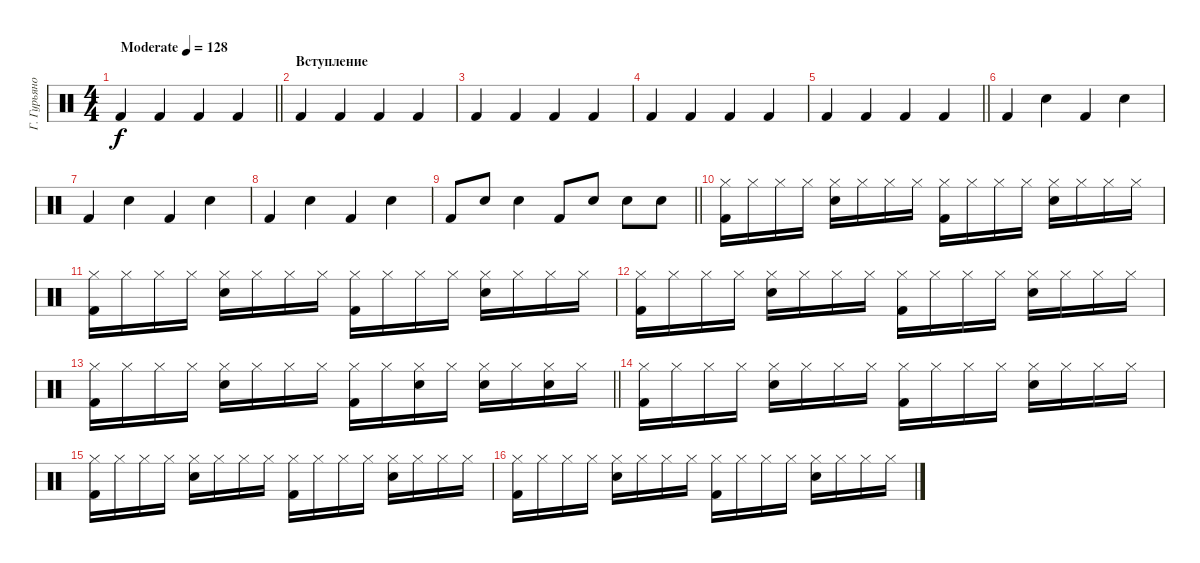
\track ("Г. Гурьянов" "Г. Гурьяно") {instrument percussion}
\staff
\articulation defaults
\ts (4 4)
\tempo (128 "Moderate")
\clef neutral
\barLineRight lightlight
\ks c "Kick (hit) 2".4{dy f} "Kick (hit) 2".4 "Kick (hit) 2".4 "Kick (hit) 2".4
|
\section ("" "Вступление")
"Kick (hit) 2".4 "Kick (hit) 2".4 "Kick (hit) 2".4 "Kick (hit) 2".4 |
"Kick (hit) 2".4 "Kick (hit) 2".4 "Kick (hit) 2".4 "Kick (hit) 2".4 |
"Kick (hit) 2".4 "Kick (hit) 2".4 "Kick (hit) 2".4 "Kick (hit) 2".4 |
\barLineRight lightlight "Kick (hit) 2".4 "Kick (hit) 2".4 "Kick (hit) 2".4 "Kick (hit) 2".4
|
"Kick (hit) 2".4 "Snare (hit) 2".4 "Kick (hit) 2".4 "Snare (hit) 2".4 |
"Kick (hit) 2".4 "Snare (hit) 2".4 "Kick (hit) 2".4 "Snare (hit) 2".4 |
"Kick (hit) 2".4 "Snare (hit) 2".4 "Kick (hit) 2".4 "Snare (hit) 2".4 |
\barLineRight lightlight "Kick (hit) 2".8 "Snare (hit) 2".8 "Snare (hit) 2".4 "Kick (hit) 2".8 "Snare (hit) 2".8 "Snare (hit) 2".8 "Snare (hit) 2".8
|
("Hi-Hat (closed)" "Kick (hit) 2").16 "Hi-Hat (closed)".16 "Hi-Hat (closed)".16 "Hi-Hat (closed)".16 ("Hi-Hat (closed)" "Snare (hit) 2").16 "Hi-Hat (closed)".16 "Hi-Hat (closed)".16 "Hi-Hat (closed)".16 ("Hi-Hat (closed)" "Kick (hit) 2").16 "Hi-Hat (closed)".16 "Hi-Hat (closed)".16 "Hi-Hat (closed)".16 ("Hi-Hat (closed)" "Snare (hit) 2").16 "Hi-Hat (closed)".16 "Hi-Hat (closed)".16 "Hi-Hat (closed)".16 |
("Hi-Hat (closed)" "Kick (hit) 2").16 "Hi-Hat (closed)".16 "Hi-Hat (closed)".16 "Hi-Hat (closed)".16 ("Hi-Hat (closed)" "Snare (hit) 2").16 "Hi-Hat (closed)".16 "Hi-Hat (closed)".16 "Hi-Hat (closed)".16 ("Hi-Hat (closed)" "Kick (hit) 2").16 "Hi-Hat (closed)".16 "Hi-Hat (closed)".16 "Hi-Hat (closed)".16 ("Hi-Hat (closed)" "Snare (hit) 2").16 "Hi-Hat (closed)".16 "Hi-Hat (closed)".16 "Hi-Hat (closed)".16 |
("Hi-Hat (closed)" "Kick (hit) 2").16 "Hi-Hat (closed)".16 "Hi-Hat (closed)".16 "Hi-Hat (closed)".16 ("Hi-Hat (closed)" "Snare (hit) 2").16 "Hi-Hat (closed)".16 "Hi-Hat (closed)".16 "Hi-Hat (closed)".16 ("Hi-Hat (closed)" "Kick (hit) 2").16 "Hi-Hat (closed)".16 "Hi-Hat (closed)".16 "Hi-Hat (closed)".16 ("Hi-Hat (closed)" "Snare (hit) 2").16 "Hi-Hat (closed)".16 "Hi-Hat (closed)".16 "Hi-Hat (closed)".16 |
\barLineRight lightlight
("Hi-Hat (closed)" "Kick (hit) 2").16 "Hi-Hat (closed)".16 "Hi-Hat (closed)".16 "Hi-Hat (closed)".16 ("Hi-Hat (closed)" "Snare (hit) 2").16 "Hi-Hat (closed)".16 "Hi-Hat (closed)".16 "Hi-Hat (closed)".16 ("Hi-Hat (closed)" "Kick (hit) 2").16 "Hi-Hat (closed)".16 ("Hi-Hat (closed)" "Snare (hit) 2").16 "Hi-Hat (closed)".16 ("Hi-Hat (closed)" "Snare (hit) 2").16 "Hi-Hat (closed)".16 ("Hi-Hat (closed)" "Snare (hit) 2").16 "Hi-Hat (closed)".16 |
("Hi-Hat (closed)" "Kick (hit) 2").16 "Hi-Hat (closed)".16 "Hi-Hat (closed)".16 "Hi-Hat (closed)".16 ("Hi-Hat (closed)" "Snare (hit) 2").16 "Hi-Hat (closed)".16 "Hi-Hat (closed)".16 "Hi-Hat (closed)".16 ("Hi-Hat (closed)" "Kick (hit) 2").16 "Hi-Hat (closed)".16 "Hi-Hat (closed)".16 "Hi-Hat (closed)".16 ("Hi-Hat (closed)" "Snare (hit) 2").16 "Hi-Hat (closed)".16 "Hi-Hat (closed)".16 "Hi-Hat (closed)".16 |
("Hi-Hat (closed)" "Kick (hit) 2").16 "Hi-Hat (closed)".16 "Hi-Hat (closed)".16 "Hi-Hat (closed)".16 ("Hi-Hat (closed)" "Snare (hit) 2").16 "Hi-Hat (closed)".16 "Hi-Hat (closed)".16 "Hi-Hat (closed)".16 ("Hi-Hat (closed)" "Kick (hit) 2").16 "Hi-Hat (closed)".16 "Hi-Hat (closed)".16 "Hi-Hat (closed)".16 ("Hi-Hat (closed)" "Snare (hit) 2").16 "Hi-Hat (closed)".16 "Hi-Hat (closed)".16 "Hi-Hat (closed)".16 |
("Hi-Hat (closed)" "Kick (hit) 2").16 "Hi-Hat (closed)".16 "Hi-Hat (closed)".16 "Hi-Hat (closed)".16 ("Hi-Hat (closed)" "Snare (hit) 2").16 "Hi-Hat (closed)".16 "Hi-Hat (closed)".16 "Hi-Hat (closed)".16 ("Hi-Hat (closed)" "Kick (hit) 2").16 "Hi-Hat (closed)".16 "Hi-Hat (closed)".16 "Hi-Hat (closed)".16 ("Hi-Hat (closed)" "Snare (hit) 2").16 "Hi-Hat (closed)".16 "Hi-Hat (closed)".16 "Hi-Hat (closed)".16
